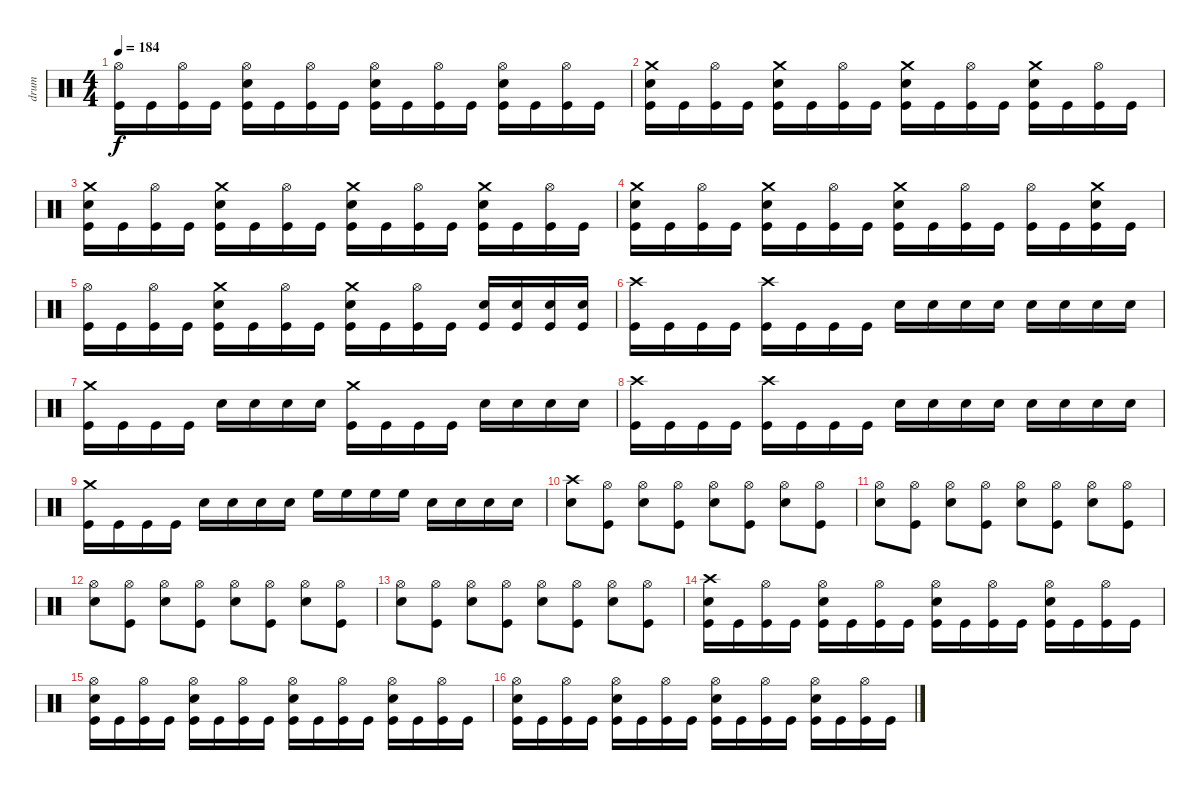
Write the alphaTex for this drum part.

\track ("drum" "drum") {instrument percussion}
\staff {score}
\articulation defaults
\ts (4 4)
\tempo 184
\clef neutral
\ks c
("Hi-Hat (open)" "Kick (hit)").16{dy f} "Kick (hit)".16 ("Hi-Hat (open)" "Kick (hit)").16 "Kick (hit)".16 ("Hi-Hat (open)" "Electric Snare (hit)" "Kick (hit)").16 "Kick (hit)".16 ("Hi-Hat (open)" "Kick (hit)").16 "Kick (hit)".16 ("Hi-Hat (open)" "Electric Snare (hit)" "Kick (hit)").16 "Kick (hit)".16 ("Hi-Hat (open)" "Kick (hit)").16 "Kick (hit)".16 ("Hi-Hat (open)" "Electric Snare (hit)" "Kick (hit)").16 "Kick (hit)".16 ("Hi-Hat (open)" "Kick (hit)").16 "Kick (hit)".16 |
("Crash medium (hit)" "Electric Snare (hit)" "Kick (hit)").16 "Kick (hit)".16 ("Hi-Hat (open)" "Kick (hit)").16 "Kick (hit)".16 ("Crash medium (hit)" "Electric Snare (hit)" "Kick (hit)").16 "Kick (hit)".16 ("Hi-Hat (open)" "Kick (hit)").16 "Kick (hit)".16 ("Crash medium (hit)" "Electric Snare (hit)" "Kick (hit)").16 "Kick (hit)".16 ("Hi-Hat (open)" "Kick (hit)").16 "Kick (hit)".16 ("Crash medium (hit)" "Electric Snare (hit)" "Kick (hit)").16 "Kick (hit)".16 ("Hi-Hat (open)" "Kick (hit)").16 "Kick (hit)".16 |
("Crash medium (hit)" "Electric Snare (hit)" "Kick (hit)").16 "Kick (hit)".16 ("Hi-Hat (open)" "Kick (hit)").16 "Kick (hit)".16 ("Crash medium (hit)" "Electric Snare (hit)" "Kick (hit)").16 "Kick (hit)".16 ("Hi-Hat (open)" "Kick (hit)").16 "Kick (hit)".16 ("Crash medium (hit)" "Electric Snare (hit)" "Kick (hit)").16 "Kick (hit)".16 ("Hi-Hat (open)" "Kick (hit)").16 "Kick (hit)".16 ("Crash medium (hit)" "Electric Snare (hit)" "Kick (hit)").16 "Kick (hit)".16 ("Hi-Hat (open)" "Kick (hit)").16 "Kick (hit)".16 |
("Crash medium (hit)" "Electric Snare (hit)" "Kick (hit)").16 "Kick (hit)".16 ("Hi-Hat (open)" "Kick (hit)").16 "Kick (hit)".16 ("Crash medium (hit)" "Electric Snare (hit)" "Kick (hit)").16 "Kick (hit)".16 ("Hi-Hat (open)" "Kick (hit)").16 "Kick (hit)".16 ("Crash medium (hit)" "Electric Snare (hit)" "Kick (hit)").16 "Kick (hit)".16 ("Hi-Hat (open)" "Kick (hit)").16 "Kick (hit)".16 ("Hi-Hat (open)" "Kick (hit)").16 "Kick (hit)".16 ("Crash medium (hit)" "Electric Snare (hit)" "Kick (hit)").16 "Kick (hit)".16 |
("Hi-Hat (open)" "Kick (hit)").16 "Kick (hit)".16 ("Hi-Hat (open)" "Kick (hit)").16 "Kick (hit)".16 ("Crash medium (hit)" "Electric Snare (hit)" "Kick (hit)").16 "Kick (hit)".16 ("Hi-Hat (open)" "Kick (hit)").16 "Kick (hit)".16 ("Crash medium (hit)" "Electric Snare (hit)" "Kick (hit)").16 "Kick (hit)".16 ("Hi-Hat (open)" "Kick (hit)").16 "Kick (hit)".16 ("Electric Snare (hit)" "Kick (hit)").16 ("Electric Snare (hit)" "Kick (hit)").16 ("Electric Snare (hit)" "Kick (hit)").16 ("Electric Snare (hit)" "Kick (hit)").16 |
("Crash high (hit)" "Kick (hit)").16 "Kick (hit)".16 "Kick (hit)".16 "Kick (hit)".16 ("Crash high (hit)" "Kick (hit)").16 "Kick (hit)".16 "Kick (hit)".16 "Kick (hit)".16 "Electric Snare (hit)".16 "Electric Snare (hit)".16 "Electric Snare (hit)".16 "Electric Snare (hit)".16 "Electric Snare (hit)".16 "Electric Snare (hit)".16 "Electric Snare (hit)".16 "Electric Snare (hit)".16 |
("Crash medium (hit)" "Kick (hit)").16 "Kick (hit)".16 "Kick (hit)".16 "Kick (hit)".16 "Electric Snare (hit)".16 "Electric Snare (hit)".16 "Electric Snare (hit)".16 "Electric Snare (hit)".16 ("Crash medium (hit)" "Kick (hit)").16 "Kick (hit)".16 "Kick (hit)".16 "Kick (hit)".16 "Electric Snare (hit)".16 "Electric Snare (hit)".16 "Electric Snare (hit)".16 "Electric Snare (hit)".16 |
("Crash high (hit)" "Kick (hit)").16 "Kick (hit)".16 "Kick (hit)".16 "Kick (hit)".16 ("Crash high (hit)" "Kick (hit)").16 "Kick (hit)".16 "Kick (hit)".16 "Kick (hit)".16 "Electric Snare (hit)".16 "Electric Snare (hit)".16 "Electric Snare (hit)".16 "Electric Snare (hit)".16 "Electric Snare (hit)".16 "Electric Snare (hit)".16 "Electric Snare (hit)".16 "Electric Snare (hit)".16 |
("Crash medium (hit)" "Kick (hit)").16 "Kick (hit)".16 "Kick (hit)".16 "Kick (hit)".16 "Electric Snare (hit)".16 "Electric Snare (hit)".16 "Electric Snare (hit)".16 "Electric Snare (hit)".16 "High Floor Tom (hit)".16 "High Floor Tom (hit)".16 "High Floor Tom (hit)".16 "High Floor Tom (hit)".16 "Electric Snare (hit)".16 "Electric Snare (hit)".16 "Electric Snare (hit)".16 "Electric Snare (hit)".16 |
("Crash high (hit)" "Electric Snare (hit)").8 ("Hi-Hat (open)" "Kick (hit)").8 ("Hi-Hat (open)" "Electric Snare (hit)").8 ("Hi-Hat (open)" "Kick (hit)").8 ("Hi-Hat (open)" "Electric Snare (hit)").8 ("Hi-Hat (open)" "Kick (hit)").8 ("Hi-Hat (open)" "Electric Snare (hit)").8 ("Hi-Hat (open)" "Kick (hit)").8 |
("Hi-Hat (open)" "Electric Snare (hit)").8 ("Hi-Hat (open)" "Kick (hit)").8 ("Hi-Hat (open)" "Electric Snare (hit)").8 ("Hi-Hat (open)" "Kick (hit)").8 ("Hi-Hat (open)" "Electric Snare (hit)").8 ("Hi-Hat (open)" "Kick (hit)").8 ("Hi-Hat (open)" "Electric Snare (hit)").8 ("Hi-Hat (open)" "Kick (hit)").8 |
("Hi-Hat (open)" "Electric Snare (hit)").8 ("Hi-Hat (open)" "Kick (hit)").8 ("Hi-Hat (open)" "Electric Snare (hit)").8 ("Hi-Hat (open)" "Kick (hit)").8 ("Hi-Hat (open)" "Electric Snare (hit)").8 ("Hi-Hat (open)" "Kick (hit)").8 ("Hi-Hat (open)" "Electric Snare (hit)").8 ("Hi-Hat (open)" "Kick (hit)").8 |
("Hi-Hat (open)" "Electric Snare (hit)").8 ("Hi-Hat (open)" "Kick (hit)").8 ("Hi-Hat (open)" "Electric Snare (hit)").8 ("Hi-Hat (open)" "Kick (hit)").8 ("Hi-Hat (open)" "Electric Snare (hit)").8 ("Hi-Hat (open)" "Kick (hit)").8 ("Hi-Hat (open)" "Electric Snare (hit)").8 ("Hi-Hat (open)" "Kick (hit)").8 |
("Crash high (hit)" "Electric Snare (hit)" "Kick (hit)").16 "Kick (hit)".16 ("Hi-Hat (open)" "Kick (hit)").16 "Kick (hit)".16 ("Hi-Hat (open)" "Electric Snare (hit)" "Kick (hit)").16 "Kick (hit)".16 ("Hi-Hat (open)" "Kick (hit)").16 "Kick (hit)".16 ("Hi-Hat (open)" "Electric Snare (hit)" "Kick (hit)").16 "Kick (hit)".16 ("Hi-Hat (open)" "Kick (hit)").16 "Kick (hit)".16 ("Hi-Hat (open)" "Electric Snare (hit)" "Kick (hit)").16 "Kick (hit)".16 ("Hi-Hat (open)" "Kick (hit)").16 "Kick (hit)".16 |
("Hi-Hat (open)" "Electric Snare (hit)" "Kick (hit)").16 "Kick (hit)".16 ("Hi-Hat (open)" "Kick (hit)").16 "Kick (hit)".16 ("Hi-Hat (open)" "Electric Snare (hit)" "Kick (hit)").16 "Kick (hit)".16 ("Hi-Hat (open)" "Kick (hit)").16 "Kick (hit)".16 ("Hi-Hat (open)" "Electric Snare (hit)" "Kick (hit)").16 "Kick (hit)".16 ("Hi-Hat (open)" "Kick (hit)").16 "Kick (hit)".16 ("Hi-Hat (open)" "Electric Snare (hit)" "Kick (hit)").16 "Kick (hit)".16 ("Hi-Hat (open)" "Kick (hit)").16 "Kick (hit)".16 |
("Hi-Hat (open)" "Electric Snare (hit)" "Kick (hit)").16 "Kick (hit)".16 ("Hi-Hat (open)" "Kick (hit)").16 "Kick (hit)".16 ("Hi-Hat (open)" "Electric Snare (hit)" "Kick (hit)").16 "Kick (hit)".16 ("Hi-Hat (open)" "Kick (hit)").16 "Kick (hit)".16 ("Hi-Hat (open)" "Electric Snare (hit)" "Kick (hit)").16 "Kick (hit)".16 ("Hi-Hat (open)" "Kick (hit)").16 "Kick (hit)".16 ("Hi-Hat (open)" "Electric Snare (hit)" "Kick (hit)").16 "Kick (hit)".16 ("Hi-Hat (open)" "Kick (hit)").16 "Kick (hit)".16
